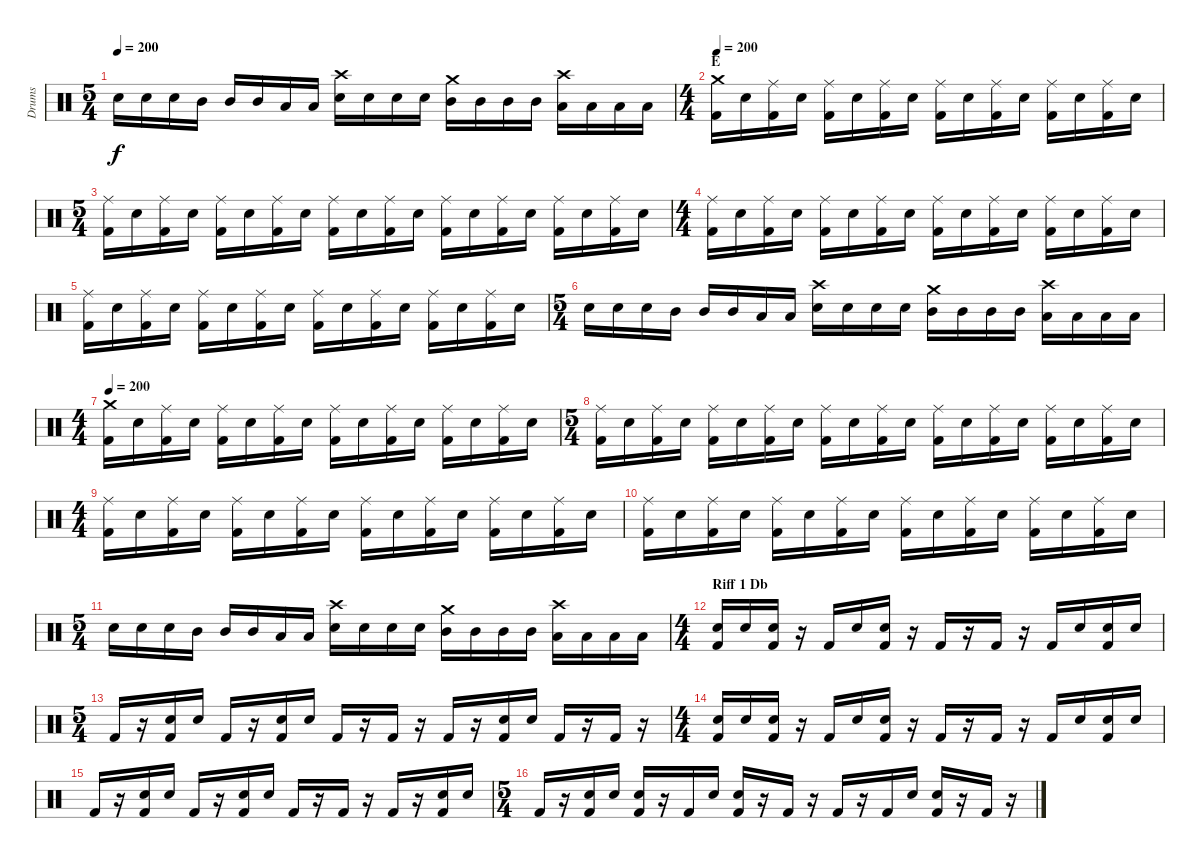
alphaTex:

\track ("Drums" "Drums") {instrument percussion}
\staff {score}
\articulation defaults
\ts (5 4)
\tempo 200
\clef neutral
\ks c "Electric Snare (hit)".16{dy f} "Electric Snare (hit)".16 "Electric Snare (hit)".16 "Mid Tom (hit)".16 "Mid Tom (hit)".16 "Mid Tom (hit)".16 "Low Tom (hit)".16 "Low Tom (hit)".16
("Crash high (hit)" "Electric Snare (hit)").16 "Electric Snare (hit)".16 "Electric Snare (hit)".16 "Electric Snare (hit)".16 ("Crash medium (hit)" "Mid Tom (hit)").16 "Mid Tom (hit)".16 "Mid Tom (hit)".16 "Mid Tom (hit)".16 ("Crash high (hit)" "Low Tom (hit)").16 "Low Tom (hit)".16 "Low Tom (hit)".16 "Low Tom (hit)".16 |
\ts (4 4)
\section ("" "E")
\tempo 200
("Crash medium (hit)" "Kick (hit) 2").16 "Electric Snare (hit)".16 ("Ride (middle)" "Kick (hit) 2").16 "Electric Snare (hit)".16 ("Ride (middle)" "Kick (hit) 2").16 "Electric Snare (hit)".16 ("Ride (middle)" "Kick (hit) 2").16 "Electric Snare (hit)".16 ("Ride (middle)" "Kick (hit) 2").16 "Electric Snare (hit)".16 ("Ride (middle)" "Kick (hit) 2").16 "Electric Snare (hit)".16 ("Ride (middle)" "Kick (hit) 2").16 "Electric Snare (hit)".16 ("Ride (middle)" "Kick (hit) 2").16 "Electric Snare (hit)".16 |
\ts (5 4)
("Ride (middle)" "Kick (hit) 2").16 "Electric Snare (hit)".16 ("Ride (middle)" "Kick (hit) 2").16 "Electric Snare (hit)".16 ("Ride (middle)" "Kick (hit) 2").16 "Electric Snare (hit)".16 ("Ride (middle)" "Kick (hit) 2").16 "Electric Snare (hit)".16 ("Ride (middle)" "Kick (hit) 2").16 "Electric Snare (hit)".16 ("Ride (middle)" "Kick (hit) 2").16 "Electric Snare (hit)".16 ("Ride (middle)" "Kick (hit) 2").16 "Electric Snare (hit)".16 ("Ride (middle)" "Kick (hit) 2").16 "Electric Snare (hit)".16 ("Ride (middle)" "Kick (hit) 2").16 "Electric Snare (hit)".16 ("Ride (middle)" "Kick (hit) 2").16 "Electric Snare (hit)".16 |
\ts (4 4)
("Ride (middle)" "Kick (hit) 2").16 "Electric Snare (hit)".16 ("Ride (middle)" "Kick (hit) 2").16 "Electric Snare (hit)".16 ("Ride (middle)" "Kick (hit) 2").16 "Electric Snare (hit)".16 ("Ride (middle)" "Kick (hit) 2").16 "Electric Snare (hit)".16 ("Ride (middle)" "Kick (hit) 2").16 "Electric Snare (hit)".16 ("Ride (middle)" "Kick (hit) 2").16 "Electric Snare (hit)".16 ("Ride (middle)" "Kick (hit) 2").16 "Electric Snare (hit)".16 ("Ride (middle)" "Kick (hit) 2").16 "Electric Snare (hit)".16 |
("Ride (middle)" "Kick (hit) 2").16 "Electric Snare (hit)".16 ("Ride (middle)" "Kick (hit) 2").16 "Electric Snare (hit)".16 ("Ride (middle)" "Kick (hit) 2").16 "Electric Snare (hit)".16 ("Ride (middle)" "Kick (hit) 2").16 "Electric Snare (hit)".16 ("Ride (middle)" "Kick (hit) 2").16 "Electric Snare (hit)".16 ("Ride (middle)" "Kick (hit) 2").16 "Electric Snare (hit)".16 ("Ride (middle)" "Kick (hit) 2").16 "Electric Snare (hit)".16 ("Ride (middle)" "Kick (hit) 2").16 "Electric Snare (hit)".16 |
\ts (5 4)
"Electric Snare (hit)".16 "Electric Snare (hit)".16 "Electric Snare (hit)".16 "Mid Tom (hit)".16 "Mid Tom (hit)".16 "Mid Tom (hit)".16 "Low Tom (hit)".16 "Low Tom (hit)".16 ("Crash high (hit)" "Electric Snare (hit)").16 "Electric Snare (hit)".16 "Electric Snare (hit)".16 "Electric Snare (hit)".16 ("Crash medium (hit)" "Mid Tom (hit)").16 "Mid Tom (hit)".16 "Mid Tom (hit)".16 "Mid Tom (hit)".16 ("Crash high (hit)" "Low Tom (hit)").16 "Low Tom (hit)".16 "Low Tom (hit)".16 "Low Tom (hit)".16 |
\ts (4 4)
\tempo 200
("Crash medium (hit)" "Kick (hit) 2").16 "Electric Snare (hit)".16 ("Ride (middle)" "Kick (hit) 2").16 "Electric Snare (hit)".16 ("Ride (middle)" "Kick (hit) 2").16 "Electric Snare (hit)".16 ("Ride (middle)" "Kick (hit) 2").16 "Electric Snare (hit)".16 ("Ride (middle)" "Kick (hit) 2").16 "Electric Snare (hit)".16 ("Ride (middle)" "Kick (hit) 2").16 "Electric Snare (hit)".16 ("Ride (middle)" "Kick (hit) 2").16 "Electric Snare (hit)".16 ("Ride (middle)" "Kick (hit) 2").16 "Electric Snare (hit)".16 |
\ts (5 4)
("Ride (middle)" "Kick (hit) 2").16 "Electric Snare (hit)".16 ("Ride (middle)" "Kick (hit) 2").16 "Electric Snare (hit)".16 ("Ride (middle)" "Kick (hit) 2").16 "Electric Snare (hit)".16 ("Ride (middle)" "Kick (hit) 2").16 "Electric Snare (hit)".16 ("Ride (middle)" "Kick (hit) 2").16 "Electric Snare (hit)".16 ("Ride (middle)" "Kick (hit) 2").16 "Electric Snare (hit)".16 ("Ride (middle)" "Kick (hit) 2").16 "Electric Snare (hit)".16 ("Ride (middle)" "Kick (hit) 2").16 "Electric Snare (hit)".16 ("Ride (middle)" "Kick (hit) 2").16 "Electric Snare (hit)".16 ("Ride (middle)" "Kick (hit) 2").16 "Electric Snare (hit)".16 |
\ts (4 4)
("Ride (middle)" "Kick (hit) 2").16 "Electric Snare (hit)".16 ("Ride (middle)" "Kick (hit) 2").16 "Electric Snare (hit)".16 ("Ride (middle)" "Kick (hit) 2").16 "Electric Snare (hit)".16 ("Ride (middle)" "Kick (hit) 2").16 "Electric Snare (hit)".16 ("Ride (middle)" "Kick (hit) 2").16 "Electric Snare (hit)".16 ("Ride (middle)" "Kick (hit) 2").16 "Electric Snare (hit)".16 ("Ride (middle)" "Kick (hit) 2").16 "Electric Snare (hit)".16 ("Ride (middle)" "Kick (hit) 2").16 "Electric Snare (hit)".16 |
("Ride (middle)" "Kick (hit) 2").16 "Electric Snare (hit)".16 ("Ride (middle)" "Kick (hit) 2").16 "Electric Snare (hit)".16 ("Ride (middle)" "Kick (hit) 2").16 "Electric Snare (hit)".16 ("Ride (middle)" "Kick (hit) 2").16 "Electric Snare (hit)".16 ("Ride (middle)" "Kick (hit) 2").16 "Electric Snare (hit)".16 ("Ride (middle)" "Kick (hit) 2").16 "Electric Snare (hit)".16 ("Ride (middle)" "Kick (hit) 2").16 "Electric Snare (hit)".16 ("Ride (middle)" "Kick (hit) 2").16 "Electric Snare (hit)".16 |
\ts (5 4)
"Electric Snare (hit)".16 "Electric Snare (hit)".16 "Electric Snare (hit)".16 "Mid Tom (hit)".16 "Mid Tom (hit)".16 "Mid Tom (hit)".16 "Low Tom (hit)".16 "Low Tom (hit)".16 ("Crash high (hit)" "Electric Snare (hit)").16 "Electric Snare (hit)".16 "Electric Snare (hit)".16 "Electric Snare (hit)".16 ("Crash medium (hit)" "Mid Tom (hit)").16 "Mid Tom (hit)".16 "Mid Tom (hit)".16 "Mid Tom (hit)".16 ("Crash high (hit)" "Low Tom (hit)").16 "Low Tom (hit)".16 "Low Tom (hit)".16 "Low Tom (hit)".16 |
\ts (4 4)
\section ("" "Riff 1 Db")
("Electric Snare (hit)" "Kick (hit) 2").16 "Electric Snare (hit)".16 ("Electric Snare (hit)" "Kick (hit) 2").16 r.16 "Kick (hit) 2".16 "Electric Snare (hit)".16 ("Electric Snare (hit)" "Kick (hit) 2").16 r.16 "Kick (hit) 2".16 r.16 "Kick (hit) 2".16 r.16 "Kick (hit) 2".16 "Electric Snare (hit)".16 ("Electric Snare (hit)" "Kick (hit) 2").16 "Electric Snare (hit)".16 |
\ts (5 4)
"Kick (hit) 2".16 r.16 ("Electric Snare (hit)" "Kick (hit) 2").16 "Electric Snare (hit)".16 "Kick (hit) 2".16 r.16 ("Electric Snare (hit)" "Kick (hit) 2").16 "Electric Snare (hit)".16 "Kick (hit) 2".16 r.16 "Kick (hit) 2".16 r.16 "Kick (hit) 2".16 r.16 ("Electric Snare (hit)" "Kick (hit) 2").16 "Electric Snare (hit)".16 "Kick (hit) 2".16 r.16 "Kick (hit) 2".16 r.16 |
\ts (4 4)
("Electric Snare (hit)" "Kick (hit) 2").16 "Electric Snare (hit)".16 ("Electric Snare (hit)" "Kick (hit) 2").16 r.16 "Kick (hit) 2".16 "Electric Snare (hit)".16 ("Electric Snare (hit)" "Kick (hit) 2").16 r.16 "Kick (hit) 2".16 r.16 "Kick (hit) 2".16 r.16 "Kick (hit) 2".16 "Electric Snare (hit)".16 ("Electric Snare (hit)" "Kick (hit) 2").16 "Electric Snare (hit)".16 |
"Kick (hit) 2".16 r.16 ("Electric Snare (hit)" "Kick (hit) 2").16 "Electric Snare (hit)".16 "Kick (hit) 2".16 r.16 ("Electric Snare (hit)" "Kick (hit) 2").16 "Electric Snare (hit)".16 "Kick (hit) 2".16 r.16 "Kick (hit) 2".16 r.16 "Kick (hit) 2".16 r.16 ("Electric Snare (hit)" "Kick (hit) 2").16 "Electric Snare (hit)".16 |
\ts (5 4)
"Kick (hit) 2".16 r.16 ("Electric Snare (hit)" "Kick (hit) 2").16 "Electric Snare (hit)".16 ("Electric Snare (hit)" "Kick (hit) 2").16 r.16 "Kick (hit) 2".16 "Electric Snare (hit)".16 ("Electric Snare (hit)" "Kick (hit) 2").16 r.16 "Kick (hit) 2".16 r.16 "Kick (hit) 2".16 r.16 "Kick (hit) 2".16 "Electric Snare (hit)".16 ("Electric Snare (hit)" "Kick (hit) 2").16 r.16 "Kick (hit) 2".16 r.16
